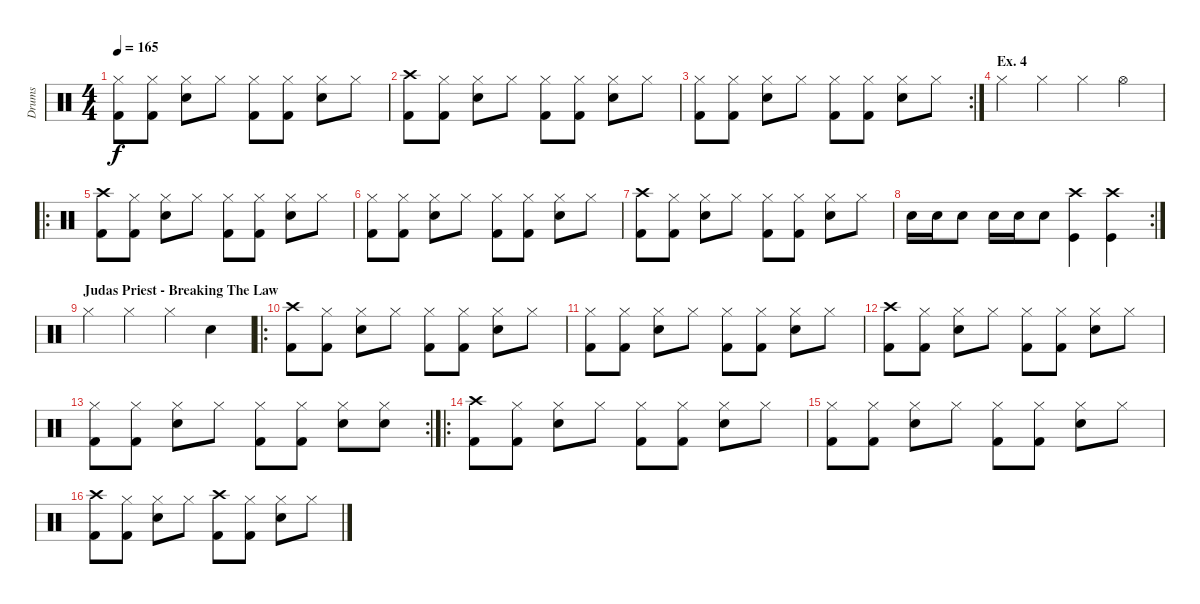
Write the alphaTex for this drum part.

\track ("Drums" "Drums") {instrument percussion}
\staff {score}
\articulation defaults
\ts (4 4)
\tempo 165
\clef neutral
\ks c
("Hi-Hat (closed)" "Kick (hit) 2").8{dy f} ("Hi-Hat (closed)" "Kick (hit) 2").8 ("Hi-Hat (closed)" "Snare (hit) 2").8 "Hi-Hat (closed)".8 ("Hi-Hat (closed)" "Kick (hit) 2").8 ("Hi-Hat (closed)" "Kick (hit) 2").8 ("Hi-Hat (closed)" "Snare (hit) 2").8 "Hi-Hat (closed)".8 |
("Crash high (hit)" "Kick (hit) 2").8 ("Hi-Hat (closed)" "Kick (hit) 2").8 ("Hi-Hat (closed)" "Snare (hit) 2").8 "Hi-Hat (closed)".8 ("Hi-Hat (closed)" "Kick (hit) 2").8 ("Hi-Hat (closed)" "Kick (hit) 2").8 ("Hi-Hat (closed)" "Snare (hit) 2").8 "Hi-Hat (closed)".8 |
\rc 2
("Hi-Hat (closed)" "Kick (hit) 2").8 ("Hi-Hat (closed)" "Kick (hit) 2").8 ("Hi-Hat (closed)" "Snare (hit) 2").8 "Hi-Hat (closed)".8 ("Hi-Hat (closed)" "Kick (hit) 2").8 ("Hi-Hat (closed)" "Kick (hit) 2").8 ("Hi-Hat (closed)" "Snare (hit) 2").8 "Hi-Hat (closed)".8 |
\section ("" "Ex. 4")
"Hi-Hat (closed)".4 "Hi-Hat (closed)".4 "Hi-Hat (closed)".4 "Hi-Hat (open)".4 |
\ro
("Crash high (hit)" "Kick (hit) 2").8 ("Hi-Hat (closed)" "Kick (hit) 2").8 ("Hi-Hat (closed)" "Snare (hit) 2").8 "Hi-Hat (closed)".8 ("Hi-Hat (closed)" "Kick (hit) 2").8 ("Hi-Hat (closed)" "Kick (hit) 2").8 ("Hi-Hat (closed)" "Snare (hit) 2").8 "Hi-Hat (closed)".8 |
("Hi-Hat (closed)" "Kick (hit) 2").8 ("Hi-Hat (closed)" "Kick (hit) 2").8 ("Hi-Hat (closed)" "Snare (hit) 2").8 "Hi-Hat (closed)".8 ("Hi-Hat (closed)" "Kick (hit) 2").8 ("Hi-Hat (closed)" "Kick (hit) 2").8 ("Hi-Hat (closed)" "Snare (hit) 2").8 "Hi-Hat (closed)".8 |
("Crash high (hit)" "Kick (hit) 2").8 ("Hi-Hat (closed)" "Kick (hit) 2").8 ("Hi-Hat (closed)" "Snare (hit) 2").8 "Hi-Hat (closed)".8 ("Hi-Hat (closed)" "Kick (hit) 2").8 ("Hi-Hat (closed)" "Kick (hit) 2").8 ("Hi-Hat (closed)" "Snare (hit) 2").8 "Hi-Hat (closed)".8 |
\rc 2 "Snare (hit) 2".16 "Snare (hit) 2".16 "Snare (hit) 2".8 "Snare (hit) 2".16 "Snare (hit) 2".16 "Snare (hit) 2".8
("Crash high (hit)" "Kick (hit)").4 ("Crash high (hit)" "Kick (hit)").4 |
\section ("" "Judas Priest - Breaking The Law")
"Hi-Hat (closed)".4 "Hi-Hat (closed)".4 "Hi-Hat (closed)".4 "Snare (hit) 2".4 |
\ro
("Crash high (hit)" "Kick (hit) 2").8 ("Hi-Hat (closed)" "Kick (hit) 2").8 ("Hi-Hat (closed)" "Snare (hit) 2").8 "Hi-Hat (closed)".8 ("Hi-Hat (closed)" "Kick (hit) 2").8 ("Hi-Hat (closed)" "Kick (hit) 2").8 ("Hi-Hat (closed)" "Snare (hit) 2").8 "Hi-Hat (closed)".8 |
("Hi-Hat (closed)" "Kick (hit) 2").8 ("Hi-Hat (closed)" "Kick (hit) 2").8 ("Hi-Hat (closed)" "Snare (hit) 2").8 "Hi-Hat (closed)".8 ("Hi-Hat (closed)" "Kick (hit) 2").8 ("Hi-Hat (closed)" "Kick (hit) 2").8 ("Hi-Hat (closed)" "Snare (hit) 2").8 "Hi-Hat (closed)".8 |
("Crash high (hit)" "Kick (hit) 2").8 ("Hi-Hat (closed)" "Kick (hit) 2").8 ("Hi-Hat (closed)" "Snare (hit) 2").8 "Hi-Hat (closed)".8 ("Hi-Hat (closed)" "Kick (hit) 2").8 ("Hi-Hat (closed)" "Kick (hit) 2").8 ("Hi-Hat (closed)" "Snare (hit) 2").8 "Hi-Hat (closed)".8 |
\rc 2
("Hi-Hat (closed)" "Kick (hit) 2").8 ("Hi-Hat (closed)" "Kick (hit) 2").8 ("Hi-Hat (closed)" "Snare (hit) 2").8 "Hi-Hat (closed)".8 ("Hi-Hat (closed)" "Kick (hit) 2").8 ("Hi-Hat (closed)" "Kick (hit) 2").8 ("Hi-Hat (closed)" "Snare (hit) 2").8 ("Hi-Hat (closed)" "Snare (hit) 2").8 |
\ro
("Crash high (hit)" "Kick (hit) 2").8 ("Hi-Hat (closed)" "Kick (hit) 2").8 ("Hi-Hat (closed)" "Snare (hit) 2").8 "Hi-Hat (closed)".8 ("Hi-Hat (closed)" "Kick (hit) 2").8 ("Hi-Hat (closed)" "Kick (hit) 2").8 ("Hi-Hat (closed)" "Snare (hit) 2").8 "Hi-Hat (closed)".8 |
("Hi-Hat (closed)" "Kick (hit) 2").8 ("Hi-Hat (closed)" "Kick (hit) 2").8 ("Hi-Hat (closed)" "Snare (hit) 2").8 "Hi-Hat (closed)".8 ("Hi-Hat (closed)" "Kick (hit) 2").8 ("Hi-Hat (closed)" "Kick (hit) 2").8 ("Hi-Hat (closed)" "Snare (hit) 2").8 "Hi-Hat (closed)".8 |
("Crash high (hit)" "Kick (hit) 2").8 ("Hi-Hat (closed)" "Kick (hit) 2").8 ("Hi-Hat (closed)" "Snare (hit) 2").8 "Hi-Hat (closed)".8 ("Crash high (hit)" "Kick (hit) 2").8 ("Hi-Hat (closed)" "Kick (hit) 2").8 ("Hi-Hat (closed)" "Snare (hit) 2").8 "Hi-Hat (closed)".8
